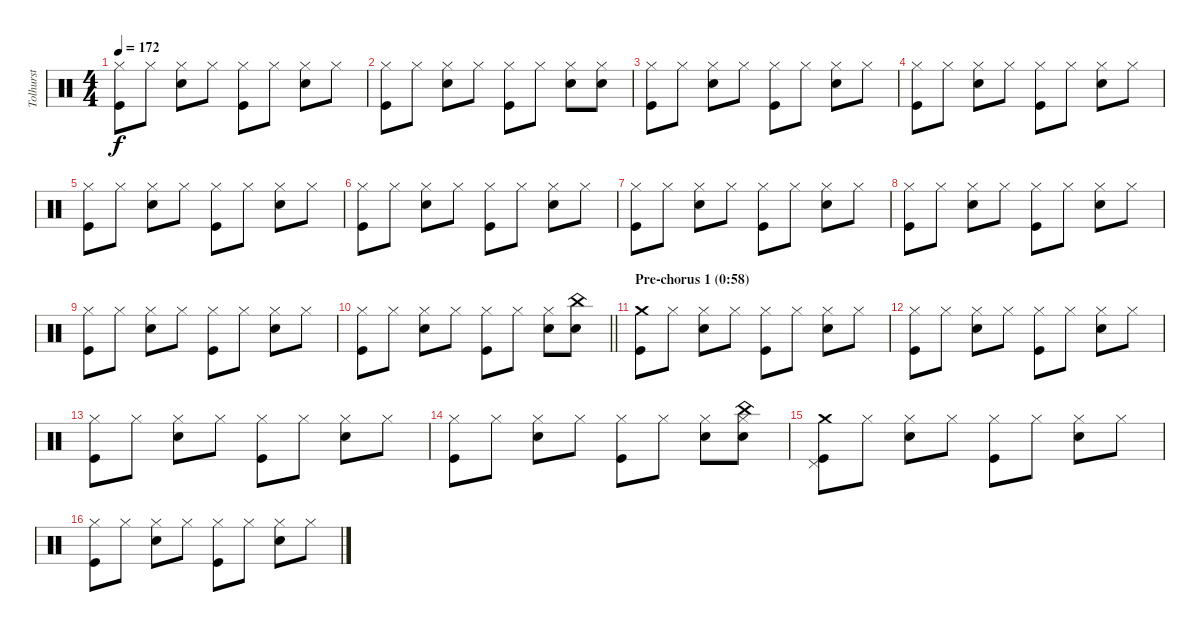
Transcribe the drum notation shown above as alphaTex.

\track ("Tolhurst" "Tolhurst") {instrument percussion}
\staff {score}
\articulation defaults
\ts (4 4)
\tempo 172
\clef neutral
\ks c
("Hi-Hat (closed)" "Kick (hit)").8{dy f} "Hi-Hat (closed)".8 ("Hi-Hat (closed)" "Snare (hit) 2").8 "Hi-Hat (closed)".8 ("Hi-Hat (closed)" "Kick (hit)").8 "Hi-Hat (closed)".8 ("Hi-Hat (closed)" "Snare (hit) 2").8 "Hi-Hat (closed)".8 |
("Hi-Hat (closed)" "Kick (hit)").8 "Hi-Hat (closed)".8 ("Hi-Hat (closed)" "Snare (hit) 2").8 "Hi-Hat (closed)".8 ("Hi-Hat (closed)" "Kick (hit)").8 "Hi-Hat (closed)".8 ("Hi-Hat (closed)" "Snare (hit) 2").8 ("Hi-Hat (closed)" "Snare (hit) 2").8 |
("Hi-Hat (closed)" "Kick (hit)").8 "Hi-Hat (closed)".8 ("Hi-Hat (closed)" "Snare (hit) 2").8 "Hi-Hat (closed)".8 ("Hi-Hat (closed)" "Kick (hit)").8 "Hi-Hat (closed)".8 ("Hi-Hat (closed)" "Snare (hit) 2").8 "Hi-Hat (closed)".8 |
("Hi-Hat (closed)" "Kick (hit)").8 "Hi-Hat (closed)".8 ("Hi-Hat (closed)" "Snare (hit) 2").8 "Hi-Hat (closed)".8 ("Hi-Hat (closed)" "Kick (hit)").8 "Hi-Hat (closed)".8 ("Hi-Hat (closed)" "Snare (hit) 2").8 "Hi-Hat (closed)".8 |
("Hi-Hat (closed)" "Kick (hit)").8 "Hi-Hat (closed)".8 ("Hi-Hat (closed)" "Snare (hit) 2").8 "Hi-Hat (closed)".8 ("Hi-Hat (closed)" "Kick (hit)").8 "Hi-Hat (closed)".8 ("Hi-Hat (closed)" "Snare (hit) 2").8 "Hi-Hat (closed)".8 |
("Hi-Hat (closed)" "Kick (hit)").8 "Hi-Hat (closed)".8 ("Hi-Hat (closed)" "Snare (hit) 2").8 "Hi-Hat (closed)".8 ("Hi-Hat (closed)" "Kick (hit)").8 "Hi-Hat (closed)".8 ("Hi-Hat (closed)" "Snare (hit) 2").8 "Hi-Hat (closed)".8 |
("Hi-Hat (closed)" "Kick (hit)").8 "Hi-Hat (closed)".8 ("Hi-Hat (closed)" "Snare (hit) 2").8 "Hi-Hat (closed)".8 ("Hi-Hat (closed)" "Kick (hit)").8 "Hi-Hat (closed)".8 ("Hi-Hat (closed)" "Snare (hit) 2").8 "Hi-Hat (closed)".8 |
("Hi-Hat (closed)" "Kick (hit)").8 "Hi-Hat (closed)".8 ("Hi-Hat (closed)" "Snare (hit) 2").8 "Hi-Hat (closed)".8 ("Hi-Hat (closed)" "Kick (hit)").8 "Hi-Hat (closed)".8 ("Hi-Hat (closed)" "Snare (hit) 2").8 "Hi-Hat (closed)".8 |
("Hi-Hat (closed)" "Kick (hit)").8 "Hi-Hat (closed)".8 ("Hi-Hat (closed)" "Snare (hit) 2").8 "Hi-Hat (closed)".8 ("Hi-Hat (closed)" "Kick (hit)").8 "Hi-Hat (closed)".8 ("Hi-Hat (closed)" "Snare (hit) 2").8 "Hi-Hat (closed)".8 |
\barLineRight lightlight
("Hi-Hat (closed)" "Kick (hit)").8 "Hi-Hat (closed)".8 ("Hi-Hat (closed)" "Snare (hit) 2").8 "Hi-Hat (closed)".8 ("Hi-Hat (closed)" "Kick (hit)").8 "Hi-Hat (closed)".8 ("Hi-Hat (closed)" "Snare (hit) 2").8 ("China (hit)" "Snare (hit) 2").8 |
\section ("" "Pre-chorus 1 (0:58)")
("Crash medium (hit)" "Kick (hit)").8 "Hi-Hat (closed)".8 ("Hi-Hat (closed)" "Snare (hit) 2").8 "Hi-Hat (closed)".8 ("Hi-Hat (closed)" "Kick (hit)").8 "Hi-Hat (closed)".8 ("Hi-Hat (closed)" "Snare (hit) 2").8 "Hi-Hat (closed)".8 |
("Hi-Hat (closed)" "Kick (hit)").8 "Hi-Hat (closed)".8 ("Hi-Hat (closed)" "Snare (hit) 2").8 "Hi-Hat (closed)".8 ("Hi-Hat (closed)" "Kick (hit)").8 "Hi-Hat (closed)".8 ("Hi-Hat (closed)" "Snare (hit) 2").8 "Hi-Hat (closed)".8 |
("Hi-Hat (closed)" "Kick (hit)").8 "Hi-Hat (closed)".8 ("Hi-Hat (closed)" "Snare (hit) 2").8 "Hi-Hat (closed)".8 ("Hi-Hat (closed)" "Kick (hit)").8 "Hi-Hat (closed)".8 ("Hi-Hat (closed)" "Snare (hit) 2").8 "Hi-Hat (closed)".8 |
("Hi-Hat (closed)" "Kick (hit)").8 "Hi-Hat (closed)".8 ("Hi-Hat (closed)" "Snare (hit) 2").8 "Hi-Hat (closed)".8 ("Hi-Hat (closed)" "Kick (hit)").8 "Hi-Hat (closed)".8 ("Hi-Hat (closed)" "Snare (hit) 2").8 ("China (hit)" "Hi-Hat (closed)" "Snare (hit) 2").8 |
("Crash medium (hit)" "Pedal Hi-Hat (hit)" "Kick (hit)").8 "Hi-Hat (closed)".8 ("Hi-Hat (closed)" "Snare (hit) 2").8 "Hi-Hat (closed)".8 ("Hi-Hat (closed)" "Kick (hit)").8 "Hi-Hat (closed)".8 ("Hi-Hat (closed)" "Snare (hit) 2").8 "Hi-Hat (closed)".8 |
("Hi-Hat (closed)" "Kick (hit)").8 "Hi-Hat (closed)".8 ("Hi-Hat (closed)" "Snare (hit) 2").8 "Hi-Hat (closed)".8 ("Hi-Hat (closed)" "Kick (hit)").8 "Hi-Hat (closed)".8 ("Hi-Hat (closed)" "Snare (hit) 2").8 "Hi-Hat (closed)".8
